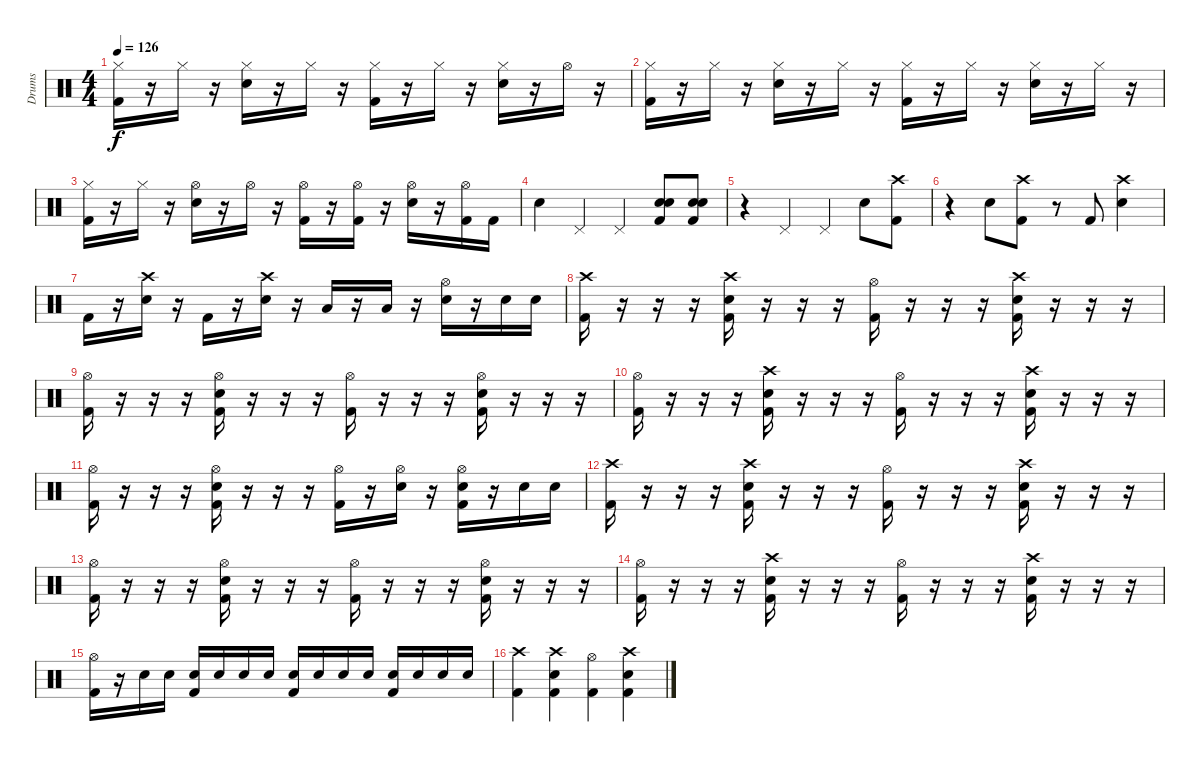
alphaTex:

\track ("Drums" "Drums") {instrument percussion}
\staff {score}
\articulation defaults
\ts (4 4)
\tempo 126
\clef neutral
\ks c
("Hi-Hat (closed)" "Kick (hit) 2").16{dy f} r.16 "Hi-Hat (closed)".16 r.16 ("Hi-Hat (closed)" "Snare (hit) 2").16 r.16 "Hi-Hat (closed)".16 r.16 ("Hi-Hat (closed)" "Kick (hit) 2").16 r.16 "Hi-Hat (closed)".16 r.16 ("Hi-Hat (closed)" "Snare (hit) 2").16 r.16 "Hi-Hat (open)".16 r.16 |
("Hi-Hat (closed)" "Kick (hit) 2").16 r.16 "Hi-Hat (closed)".16 r.16 ("Hi-Hat (closed)" "Snare (hit) 2").16 r.16 "Hi-Hat (closed)".16 r.16 ("Hi-Hat (closed)" "Kick (hit) 2").16 r.16 "Hi-Hat (closed)".16 r.16 ("Hi-Hat (closed)" "Snare (hit) 2").16 r.16 "Hi-Hat (closed)".16 r.16 |
("Hi-Hat (closed)" "Kick (hit) 2").16 r.16 "Hi-Hat (closed)".16 r.16 ("Hi-Hat (open)" "Snare (hit) 2").16 r.16 "Hi-Hat (open)".16 r.16 ("Hi-Hat (open)" "Kick (hit) 2").16 r.16 ("Hi-Hat (open)" "Kick (hit) 2").16 r.16 ("Hi-Hat (open)" "Snare (hit) 2").16 r.16 ("Hi-Hat (open)" "Kick (hit) 2").16 "Kick (hit) 2".16 |
"Snare (hit) 2".4 "Pedal Hi-Hat (hit)".4 "Pedal Hi-Hat (hit)".4 ("Hand Clap (hit)" "Snare (hit) 2" "Kick (hit) 2").8 ("Hand Clap (hit)" "Snare (hit) 2" "Kick (hit) 2").8 |
r.4 "Pedal Hi-Hat (hit)".4 "Pedal Hi-Hat (hit)".4 "Snare (hit) 2".8 ("Crash high (hit)" "Kick (hit) 2").8 |
r.4 "Snare (hit) 2".8 ("Crash high (hit)" "Kick (hit) 2").8 r.8 "Kick (hit) 2".8 ("Crash high (hit)" "Snare (hit) 2").4 |
"Kick (hit) 2".16 r.16 ("Crash high (hit)" "Snare (hit) 2").16 r.16 "Kick (hit) 2".16 r.16 ("Crash high (hit)" "Snare (hit) 2").16 r.16 "Low Tom (hit)".16 r.16 "Low Floor Tom (hit)".16 r.16 ("Hi-Hat (open)" "Snare (hit) 2").16 r.16 "Snare (hit) 2".16 "Snare (hit) 2".16 |
("Crash high (hit)" "Kick (hit) 2").16 r.16 r.16 r.16 ("Crash high (hit)" "Snare (hit) 2" "Kick (hit) 2").16 r.16 r.16 r.16 ("Hi-Hat (open)" "Kick (hit) 2").16 r.16 r.16 r.16 ("Crash high (hit)" "Snare (hit) 2" "Kick (hit) 2").16 r.16 r.16 r.16 |
("Hi-Hat (open)" "Kick (hit) 2").16 r.16 r.16 r.16 ("Hi-Hat (open)" "Snare (hit) 2" "Kick (hit) 2").16 r.16 r.16 r.16 ("Hi-Hat (open)" "Kick (hit) 2").16 r.16 r.16 r.16 ("Hi-Hat (open)" "Snare (hit) 2" "Kick (hit) 2").16 r.16 r.16 r.16 |
("Hi-Hat (open)" "Kick (hit) 2").16 r.16 r.16 r.16 ("Crash high (hit)" "Snare (hit) 2" "Kick (hit) 2").16 r.16 r.16 r.16 ("Hi-Hat (open)" "Kick (hit) 2").16 r.16 r.16 r.16 ("Crash high (hit)" "Snare (hit) 2" "Kick (hit) 2").16 r.16 r.16 r.16 |
("Hi-Hat (open)" "Kick (hit) 2").16 r.16 r.16 r.16 ("Hi-Hat (open)" "Snare (hit) 2" "Kick (hit) 2").16 r.16 r.16 r.16 ("Hi-Hat (open)" "Kick (hit) 2").16 r.16 ("Hi-Hat (open)" "Snare (hit) 2").16 r.16 ("Hi-Hat (open)" "Snare (hit) 2" "Kick (hit) 2").16 r.16 "Snare (hit) 2".16 "Snare (hit) 2".16 |
("Crash high (hit)" "Kick (hit) 2").16 r.16 r.16 r.16 ("Crash high (hit)" "Snare (hit) 2" "Kick (hit) 2").16 r.16 r.16 r.16 ("Hi-Hat (open)" "Kick (hit) 2").16 r.16 r.16 r.16 ("Crash high (hit)" "Snare (hit) 2" "Kick (hit) 2").16 r.16 r.16 r.16 |
("Hi-Hat (open)" "Kick (hit) 2").16 r.16 r.16 r.16 ("Hi-Hat (open)" "Snare (hit) 2" "Kick (hit) 2").16 r.16 r.16 r.16 ("Hi-Hat (open)" "Kick (hit) 2").16 r.16 r.16 r.16 ("Hi-Hat (open)" "Snare (hit) 2" "Kick (hit) 2").16 r.16 r.16 r.16 |
("Hi-Hat (open)" "Kick (hit) 2").16 r.16 r.16 r.16 ("Crash high (hit)" "Snare (hit) 2" "Kick (hit) 2").16 r.16 r.16 r.16 ("Hi-Hat (open)" "Kick (hit) 2").16 r.16 r.16 r.16 ("Crash high (hit)" "Snare (hit) 2" "Kick (hit) 2").16 r.16 r.16 r.16 |
("Hi-Hat (open)" "Kick (hit) 2").16 r.16 "Snare (hit) 2".16 "Snare (hit) 2".16 ("Snare (hit) 2" "Kick (hit) 2").16 "Snare (hit) 2".16 "Snare (hit) 2".16 "Snare (hit) 2".16 ("Snare (hit) 2" "Kick (hit) 2").16 "Snare (hit) 2".16 "Snare (hit) 2".16 "Snare (hit) 2".16 ("Snare (hit) 2" "Kick (hit) 2").16 "Snare (hit) 2".16 "Snare (hit) 2".16 "Snare (hit) 2".16 |
("Crash high (hit)" "Kick (hit) 2").4 ("Crash high (hit)" "Snare (hit) 2" "Kick (hit) 2").4 ("Hi-Hat (open)" "Kick (hit) 2").4 ("Crash high (hit)" "Snare (hit) 2" "Kick (hit) 2").4
